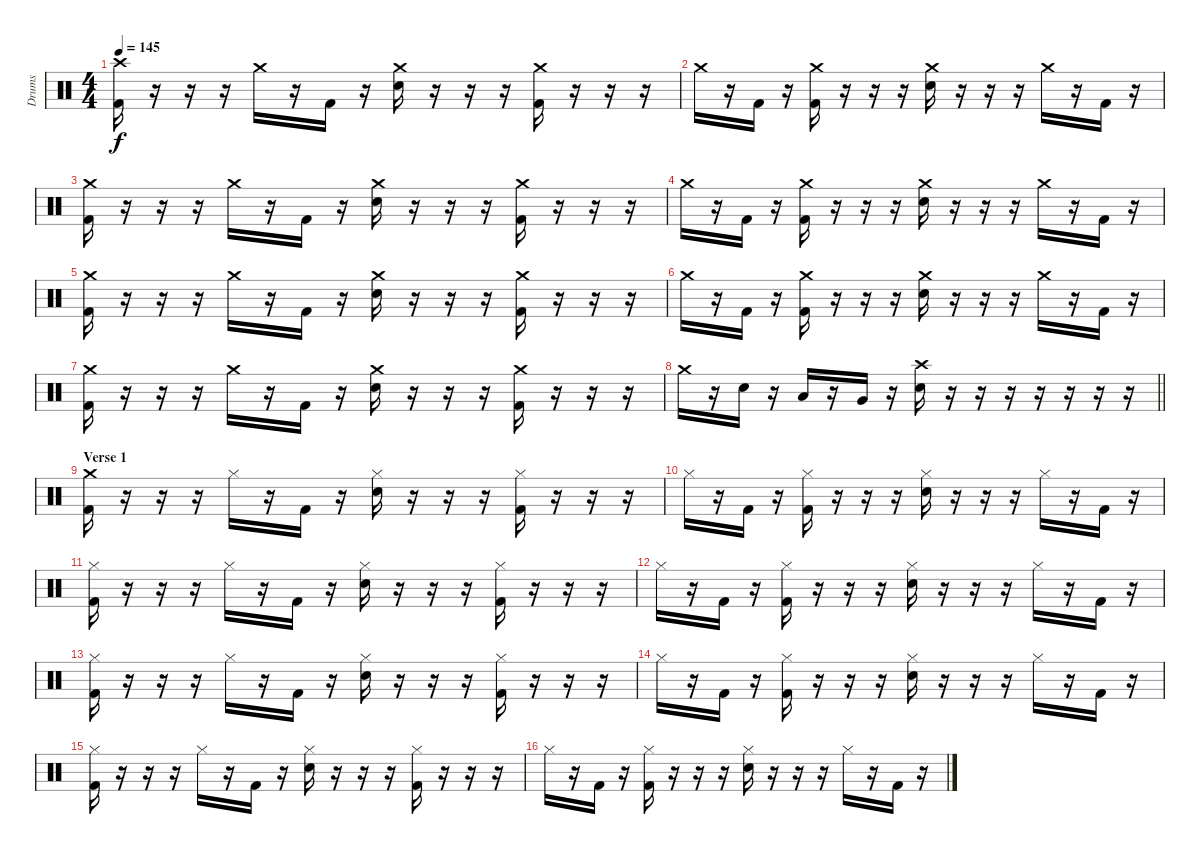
\track ("Drums" "Drums") {instrument percussion}
\staff {score}
\articulation defaults
\ts (4 4)
\tempo 145
\clef neutral
\ks c
("Crash high (hit)" "Kick (hit) 2").16{dy f} r.16 r.16 r.16 "Crash medium (hit)".16 r.16 "Kick (hit) 2".16 r.16 ("Crash medium (hit)" "Electric Snare (hit)").16 r.16 r.16 r.16 ("Crash medium (hit)" "Kick (hit) 2").16 r.16 r.16 r.16 |
"Crash medium (hit)".16 r.16 "Kick (hit) 2".16 r.16 ("Crash medium (hit)" "Kick (hit) 2").16 r.16 r.16 r.16 ("Crash medium (hit)" "Electric Snare (hit)").16 r.16 r.16 r.16 "Crash medium (hit)".16 r.16 "Kick (hit) 2".16 r.16 |
("Crash medium (hit)" "Kick (hit) 2").16 r.16 r.16 r.16 "Crash medium (hit)".16 r.16 "Kick (hit) 2".16 r.16 ("Crash medium (hit)" "Electric Snare (hit)").16 r.16 r.16 r.16 ("Crash medium (hit)" "Kick (hit) 2").16 r.16 r.16 r.16 |
"Crash medium (hit)".16 r.16 "Kick (hit) 2".16 r.16 ("Crash medium (hit)" "Kick (hit) 2").16 r.16 r.16 r.16 ("Crash medium (hit)" "Electric Snare (hit)").16 r.16 r.16 r.16 "Crash medium (hit)".16 r.16 "Kick (hit) 2".16 r.16 |
("Crash medium (hit)" "Kick (hit) 2").16 r.16 r.16 r.16 "Crash medium (hit)".16 r.16 "Kick (hit) 2".16 r.16 ("Crash medium (hit)" "Electric Snare (hit)").16 r.16 r.16 r.16 ("Crash medium (hit)" "Kick (hit) 2").16 r.16 r.16 r.16 |
"Crash medium (hit)".16 r.16 "Kick (hit) 2".16 r.16 ("Crash medium (hit)" "Kick (hit) 2").16 r.16 r.16 r.16 ("Crash medium (hit)" "Electric Snare (hit)").16 r.16 r.16 r.16 "Crash medium (hit)".16 r.16 "Kick (hit) 2".16 r.16 |
("Crash medium (hit)" "Kick (hit) 2").16 r.16 r.16 r.16 "Crash medium (hit)".16 r.16 "Kick (hit) 2".16 r.16 ("Crash medium (hit)" "Electric Snare (hit)").16 r.16 r.16 r.16 ("Crash medium (hit)" "Kick (hit) 2").16 r.16 r.16 r.16 |
\barLineRight lightlight "Crash medium (hit)".16
r.16 "Electric Snare (hit)".16 r.16 "Low Tom (hit)".16 r.16 "Very Low Tom (hit)".16 r.16 ("Crash high (hit)" "Electric Snare (hit)").16 r.16 r.16 r.16 r.16 r.16 r.16 r.16 |
\section ("" "Verse 1")
("Crash medium (hit)" "Kick (hit) 2").16 r.16 r.16 r.16 "Hi-Hat (closed)".16 r.16 "Kick (hit) 2".16 r.16 ("Hi-Hat (closed)" "Electric Snare (hit)").16 r.16 r.16 r.16 ("Hi-Hat (closed)" "Kick (hit) 2").16 r.16 r.16 r.16 |
"Hi-Hat (closed)".16 r.16 "Kick (hit) 2".16 r.16 ("Hi-Hat (closed)" "Kick (hit) 2").16 r.16 r.16 r.16 ("Hi-Hat (closed)" "Electric Snare (hit)").16 r.16 r.16 r.16 "Hi-Hat (closed)".16 r.16 "Kick (hit) 2".16 r.16 |
("Hi-Hat (closed)" "Kick (hit) 2").16 r.16 r.16 r.16 "Hi-Hat (closed)".16 r.16 "Kick (hit) 2".16 r.16 ("Hi-Hat (closed)" "Electric Snare (hit)").16 r.16 r.16 r.16 ("Hi-Hat (closed)" "Kick (hit) 2").16 r.16 r.16 r.16 |
"Hi-Hat (closed)".16 r.16 "Kick (hit) 2".16 r.16 ("Hi-Hat (closed)" "Kick (hit) 2").16 r.16 r.16 r.16 ("Hi-Hat (closed)" "Electric Snare (hit)").16 r.16 r.16 r.16 "Hi-Hat (closed)".16 r.16 "Kick (hit) 2".16 r.16 |
("Hi-Hat (closed)" "Kick (hit) 2").16 r.16 r.16 r.16 "Hi-Hat (closed)".16 r.16 "Kick (hit) 2".16 r.16 ("Hi-Hat (closed)" "Electric Snare (hit)").16 r.16 r.16 r.16 ("Hi-Hat (closed)" "Kick (hit) 2").16 r.16 r.16 r.16 |
"Hi-Hat (closed)".16 r.16 "Kick (hit) 2".16 r.16 ("Hi-Hat (closed)" "Kick (hit) 2").16 r.16 r.16 r.16 ("Hi-Hat (closed)" "Electric Snare (hit)").16 r.16 r.16 r.16 "Hi-Hat (closed)".16 r.16 "Kick (hit) 2".16 r.16 |
("Hi-Hat (closed)" "Kick (hit) 2").16 r.16 r.16 r.16 "Hi-Hat (closed)".16 r.16 "Kick (hit) 2".16 r.16 ("Hi-Hat (closed)" "Electric Snare (hit)").16 r.16 r.16 r.16 ("Hi-Hat (closed)" "Kick (hit) 2").16 r.16 r.16 r.16 |
"Hi-Hat (closed)".16 r.16 "Kick (hit) 2".16 r.16 ("Hi-Hat (closed)" "Kick (hit) 2").16 r.16 r.16 r.16 ("Hi-Hat (closed)" "Electric Snare (hit)").16 r.16 r.16 r.16 "Hi-Hat (closed)".16 r.16 "Kick (hit) 2".16 r.16
